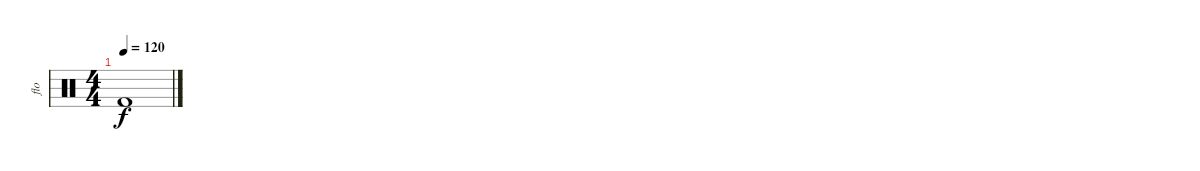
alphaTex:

\track ("flo" "flo") {instrument percussion}
\staff {score}
\articulation defaults
\ts (4 4)
\tempo 120
\clef neutral
\ks c "Kick (hit) 2".1{dy f}
